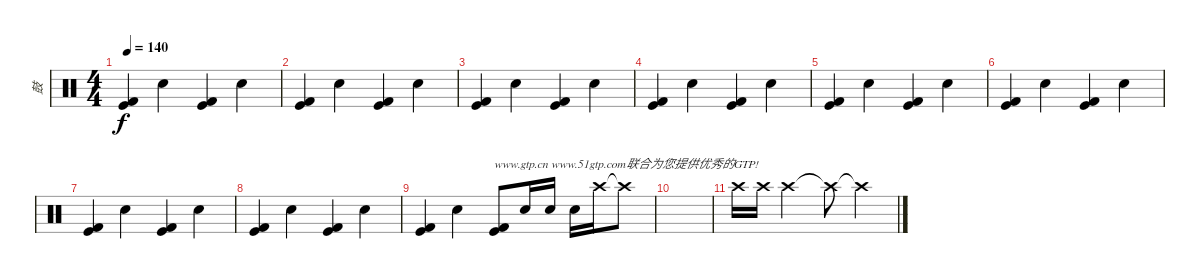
\track ("鼓" "鼓") {instrument percussion}
\staff {score}
\articulation defaults
\ts (4 4)
\tempo 140
\clef neutral
\ks c
("Kick (hit)" "Kick (hit) 2").4{dy f} "Snare (hit) 2".4 ("Kick (hit)" "Kick (hit) 2").4 "Snare (hit) 2".4 |
("Kick (hit)" "Kick (hit) 2").4 "Snare (hit) 2".4 ("Kick (hit)" "Kick (hit) 2").4 "Snare (hit) 2".4 |
("Kick (hit)" "Kick (hit) 2").4 "Snare (hit) 2".4 ("Kick (hit)" "Kick (hit) 2").4 "Snare (hit) 2".4 |
("Kick (hit)" "Kick (hit) 2").4 "Snare (hit) 2".4 ("Kick (hit)" "Kick (hit) 2").4 "Snare (hit) 2".4 |
("Kick (hit)" "Kick (hit) 2").4 "Snare (hit) 2".4 ("Kick (hit)" "Kick (hit) 2").4 "Snare (hit) 2".4 |
("Kick (hit)" "Kick (hit) 2").4 "Snare (hit) 2".4 ("Kick (hit)" "Kick (hit) 2").4 "Snare (hit) 2".4 |
("Kick (hit)" "Kick (hit) 2").4 "Snare (hit) 2".4 ("Kick (hit)" "Kick (hit) 2").4 "Snare (hit) 2".4 |
("Kick (hit)" "Kick (hit) 2").4 "Snare (hit) 2".4 ("Kick (hit)" "Kick (hit) 2").4 "Snare (hit) 2".4 |
("Kick (hit)" "Kick (hit) 2").4 "Snare (hit) 2".4 ("Kick (hit)" "Kick (hit) 2").8{txt "www.gtp.cn www.51gtp.com联合为您提供优秀的GTP!"} "Snare (hit) 2".16 "Snare (hit) 2".16 "Snare (hit) 2".16 "Crash high (hit)".16 "Crash high (hit)"{t}.8 |
|
"Crash high (hit)".16 "Crash high (hit)".16 "Crash high (hit)".2 "Crash high (hit)"{t}.8 "Crash high (hit)"{t}.4
